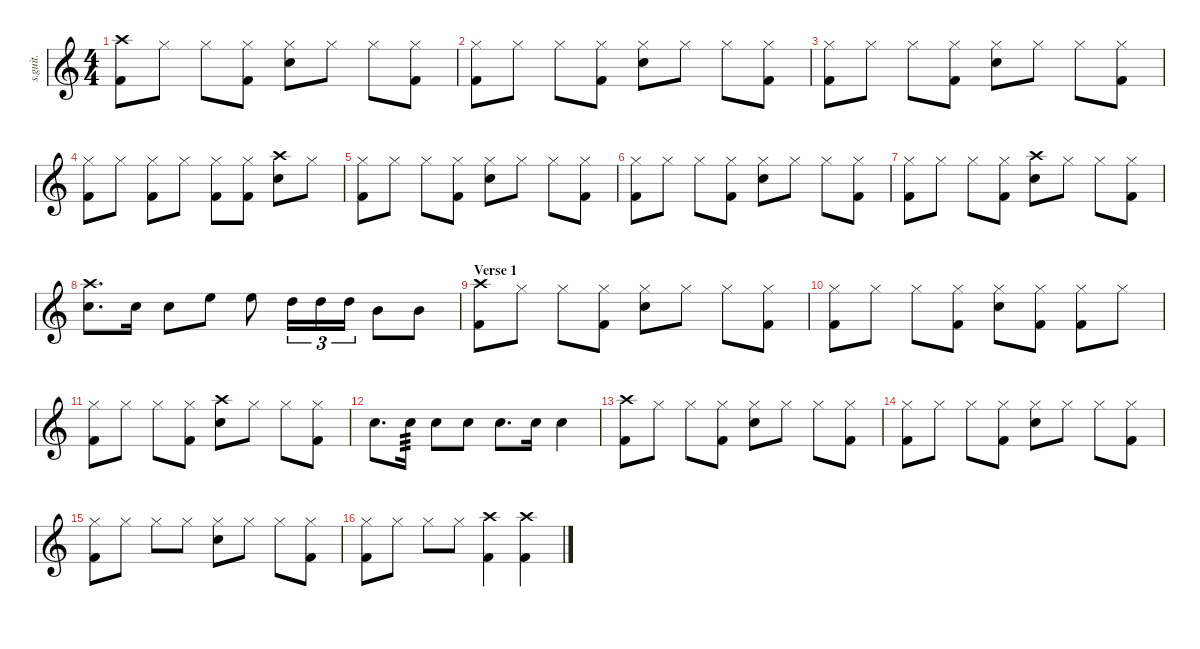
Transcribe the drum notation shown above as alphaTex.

\defaultSystemsLayout 4
\hideDynamics
\bracketExtendMode nobrackets
\track ("Lars Ulrich - Drumzzz" "s.guit.") {instrument percussion}
\staff {score}
\articulation defaults
\ts (4 4)
\tempo (113 hide)
\clef g2
\ks c
("Crash high (hit)" "Kick (hit) 2").8{lyrics (0 "") lyrics (1 "") lyrics (2 "") lyrics (3 "") lyrics (4 "") dy f} "Hi-Hat (closed)".8{lyrics (0 "") lyrics (1 "") lyrics (2 "") lyrics (3 "") lyrics (4 "")} "Hi-Hat (closed)".8{lyrics (0 "") lyrics (1 "") lyrics (2 "") lyrics (3 "") lyrics (4 "")} ("Hi-Hat (closed)" "Kick (hit) 2").8{lyrics (0 "") lyrics (1 "") lyrics (2 "") lyrics (3 "") lyrics (4 "")} ("Hi-Hat (closed)" "Snare (hit) 2").8{lyrics (0 "") lyrics (1 "") lyrics (2 "") lyrics (3 "") lyrics (4 "")} "Hi-Hat (closed)".8{lyrics (0 "") lyrics (1 "") lyrics (2 "") lyrics (3 "") lyrics (4 "")} "Hi-Hat (closed)".8{lyrics (0 "") lyrics (1 "") lyrics (2 "") lyrics (3 "") lyrics (4 "")} ("Hi-Hat (closed)" "Kick (hit) 2").8{lyrics (0 "") lyrics (1 "") lyrics (2 "") lyrics (3 "") lyrics (4 "")} |
("Hi-Hat (closed)" "Kick (hit) 2").8{lyrics (0 "") lyrics (1 "") lyrics (2 "") lyrics (3 "") lyrics (4 "")} "Hi-Hat (closed)".8{lyrics (0 "") lyrics (1 "") lyrics (2 "") lyrics (3 "") lyrics (4 "")} "Hi-Hat (closed)".8{lyrics (0 "") lyrics (1 "") lyrics (2 "") lyrics (3 "") lyrics (4 "")} ("Hi-Hat (closed)" "Kick (hit) 2").8{lyrics (0 "") lyrics (1 "") lyrics (2 "") lyrics (3 "") lyrics (4 "")} ("Hi-Hat (closed)" "Snare (hit) 2").8{lyrics (0 "") lyrics (1 "") lyrics (2 "") lyrics (3 "") lyrics (4 "")} "Hi-Hat (closed)".8{lyrics (0 "") lyrics (1 "") lyrics (2 "") lyrics (3 "") lyrics (4 "")} "Hi-Hat (closed)".8{lyrics (0 "") lyrics (1 "") lyrics (2 "") lyrics (3 "") lyrics (4 "")} ("Hi-Hat (closed)" "Kick (hit) 2").8{lyrics (0 "") lyrics (1 "") lyrics (2 "") lyrics (3 "") lyrics (4 "")} |
("Hi-Hat (closed)" "Kick (hit) 2").8{lyrics (0 "") lyrics (1 "") lyrics (2 "") lyrics (3 "") lyrics (4 "")} "Hi-Hat (closed)".8{lyrics (0 "") lyrics (1 "") lyrics (2 "") lyrics (3 "") lyrics (4 "")} "Hi-Hat (closed)".8{lyrics (0 "") lyrics (1 "") lyrics (2 "") lyrics (3 "") lyrics (4 "")} ("Hi-Hat (closed)" "Kick (hit) 2").8{lyrics (0 "") lyrics (1 "") lyrics (2 "") lyrics (3 "") lyrics (4 "")} ("Hi-Hat (closed)" "Snare (hit) 2").8{lyrics (0 "") lyrics (1 "") lyrics (2 "") lyrics (3 "") lyrics (4 "")} "Hi-Hat (closed)".8{lyrics (0 "") lyrics (1 "") lyrics (2 "") lyrics (3 "") lyrics (4 "")} "Hi-Hat (closed)".8{lyrics (0 "") lyrics (1 "") lyrics (2 "") lyrics (3 "") lyrics (4 "")} ("Hi-Hat (closed)" "Kick (hit) 2").8{lyrics (0 "") lyrics (1 "") lyrics (2 "") lyrics (3 "") lyrics (4 "")} |
("Hi-Hat (closed)" "Kick (hit) 2").8{lyrics (0 "") lyrics (1 "") lyrics (2 "") lyrics (3 "") lyrics (4 "")} "Hi-Hat (closed)".8{lyrics (0 "") lyrics (1 "") lyrics (2 "") lyrics (3 "") lyrics (4 "")} ("Hi-Hat (closed)" "Kick (hit) 2").8{lyrics (0 "") lyrics (1 "") lyrics (2 "") lyrics (3 "") lyrics (4 "")} "Hi-Hat (closed)".8{lyrics (0 "") lyrics (1 "") lyrics (2 "") lyrics (3 "") lyrics (4 "")} ("Hi-Hat (closed)" "Kick (hit) 2").8{lyrics (0 "") lyrics (1 "") lyrics (2 "") lyrics (3 "") lyrics (4 "")} ("Hi-Hat (closed)" "Kick (hit) 2").8{lyrics (0 "") lyrics (1 "") lyrics (2 "") lyrics (3 "") lyrics (4 "")} ("Crash high (hit)" "Snare (hit) 2").8{lyrics (0 "") lyrics (1 "") lyrics (2 "") lyrics (3 "") lyrics (4 "")} "Hi-Hat (closed)".8{lyrics (0 "") lyrics (1 "") lyrics (2 "") lyrics (3 "") lyrics (4 "")} |
("Hi-Hat (closed)" "Kick (hit) 2").8{lyrics (0 "") lyrics (1 "") lyrics (2 "") lyrics (3 "") lyrics (4 "")} "Hi-Hat (closed)".8{lyrics (0 "") lyrics (1 "") lyrics (2 "") lyrics (3 "") lyrics (4 "")} "Hi-Hat (closed)".8{lyrics (0 "") lyrics (1 "") lyrics (2 "") lyrics (3 "") lyrics (4 "")} ("Hi-Hat (closed)" "Kick (hit) 2").8{lyrics (0 "") lyrics (1 "") lyrics (2 "") lyrics (3 "") lyrics (4 "")} ("Hi-Hat (closed)" "Snare (hit) 2").8{lyrics (0 "") lyrics (1 "") lyrics (2 "") lyrics (3 "") lyrics (4 "")} "Hi-Hat (closed)".8{lyrics (0 "") lyrics (1 "") lyrics (2 "") lyrics (3 "") lyrics (4 "")} "Hi-Hat (closed)".8{lyrics (0 "") lyrics (1 "") lyrics (2 "") lyrics (3 "") lyrics (4 "")} ("Hi-Hat (closed)" "Kick (hit) 2").8{lyrics (0 "") lyrics (1 "") lyrics (2 "") lyrics (3 "") lyrics (4 "")} |
("Hi-Hat (closed)" "Kick (hit) 2").8{lyrics (0 "") lyrics (1 "") lyrics (2 "") lyrics (3 "") lyrics (4 "")} "Hi-Hat (closed)".8{lyrics (0 "") lyrics (1 "") lyrics (2 "") lyrics (3 "") lyrics (4 "")} "Hi-Hat (closed)".8{lyrics (0 "") lyrics (1 "") lyrics (2 "") lyrics (3 "") lyrics (4 "")} ("Hi-Hat (closed)" "Kick (hit) 2").8{lyrics (0 "") lyrics (1 "") lyrics (2 "") lyrics (3 "") lyrics (4 "")} ("Hi-Hat (closed)" "Snare (hit) 2").8{lyrics (0 "") lyrics (1 "") lyrics (2 "") lyrics (3 "") lyrics (4 "")} "Hi-Hat (closed)".8{lyrics (0 "") lyrics (1 "") lyrics (2 "") lyrics (3 "") lyrics (4 "")} "Hi-Hat (closed)".8{lyrics (0 "") lyrics (1 "") lyrics (2 "") lyrics (3 "") lyrics (4 "")} ("Hi-Hat (closed)" "Kick (hit) 2").8{lyrics (0 "") lyrics (1 "") lyrics (2 "") lyrics (3 "") lyrics (4 "")} |
("Hi-Hat (closed)" "Kick (hit) 2").8{lyrics (0 "") lyrics (1 "") lyrics (2 "") lyrics (3 "") lyrics (4 "")} "Hi-Hat (closed)".8{lyrics (0 "") lyrics (1 "") lyrics (2 "") lyrics (3 "") lyrics (4 "")} "Hi-Hat (closed)".8{lyrics (0 "") lyrics (1 "") lyrics (2 "") lyrics (3 "") lyrics (4 "")} ("Hi-Hat (closed)" "Kick (hit) 2").8{lyrics (0 "") lyrics (1 "") lyrics (2 "") lyrics (3 "") lyrics (4 "")} ("Crash high (hit)" "Snare (hit) 2").8{lyrics (0 "") lyrics (1 "") lyrics (2 "") lyrics (3 "") lyrics (4 "")} "Hi-Hat (closed)".8{lyrics (0 "") lyrics (1 "") lyrics (2 "") lyrics (3 "") lyrics (4 "")} "Hi-Hat (closed)".8{lyrics (0 "") lyrics (1 "") lyrics (2 "") lyrics (3 "") lyrics (4 "")} ("Hi-Hat (closed)" "Kick (hit) 2").8{lyrics (0 "") lyrics (1 "") lyrics (2 "") lyrics (3 "") lyrics (4 "")} |
("Crash high (hit)" "Snare (hit) 2").8{d lyrics (0 "") lyrics (1 "") lyrics (2 "") lyrics (3 "") lyrics (4 "")} "Snare (hit) 2".16{lyrics (0 "") lyrics (1 "") lyrics (2 "") lyrics (3 "") lyrics (4 "")} "Snare (hit) 2".8{lyrics (0 "") lyrics (1 "") lyrics (2 "") lyrics (3 "") lyrics (4 "")} "High Floor Tom (hit)".8{lyrics (0 "") lyrics (1 "") lyrics (2 "") lyrics (3 "") lyrics (4 "")} "High Floor Tom (hit)".8{lyrics (0 "") lyrics (1 "") lyrics (2 "") lyrics (3 "") lyrics (4 "")} "High Tom (hit)".16{tu (3 2) lyrics (0 "") lyrics (1 "") lyrics (2 "") lyrics (3 "") lyrics (4 "")} "High Tom (hit)".16{tu (3 2) lyrics (0 "") lyrics (1 "") lyrics (2 "") lyrics (3 "") lyrics (4 "")} "High Tom (hit)".16{tu (3 2) lyrics (0 "") lyrics (1 "") lyrics (2 "") lyrics (3 "") lyrics (4 "")} "Mid Tom (hit)".8{lyrics (0 "") lyrics (1 "") lyrics (2 "") lyrics (3 "") lyrics (4 "")} "Mid Tom (hit)".8{lyrics (0 "") lyrics (1 "") lyrics (2 "") lyrics (3 "") lyrics (4 "")} |
\section ("" "Verse 1")
("Crash high (hit)" "Kick (hit) 2").8{lyrics (0 "") lyrics (1 "") lyrics (2 "") lyrics (3 "") lyrics (4 "")} "Hi-Hat (closed)".8{lyrics (0 "") lyrics (1 "") lyrics (2 "") lyrics (3 "") lyrics (4 "")} "Hi-Hat (closed)".8{lyrics (0 "") lyrics (1 "") lyrics (2 "") lyrics (3 "") lyrics (4 "")} ("Hi-Hat (closed)" "Kick (hit) 2").8{lyrics (0 "") lyrics (1 "") lyrics (2 "") lyrics (3 "") lyrics (4 "")} ("Hi-Hat (closed)" "Snare (hit) 2").8{lyrics (0 "") lyrics (1 "") lyrics (2 "") lyrics (3 "") lyrics (4 "")} "Hi-Hat (closed)".8{lyrics (0 "") lyrics (1 "") lyrics (2 "") lyrics (3 "") lyrics (4 "")} "Hi-Hat (closed)".8{lyrics (0 "") lyrics (1 "") lyrics (2 "") lyrics (3 "") lyrics (4 "")} ("Hi-Hat (closed)" "Kick (hit) 2").8{lyrics (0 "") lyrics (1 "") lyrics (2 "") lyrics (3 "") lyrics (4 "")} |
("Hi-Hat (closed)" "Kick (hit) 2").8{lyrics (0 "") lyrics (1 "") lyrics (2 "") lyrics (3 "") lyrics (4 "")} "Hi-Hat (closed)".8{lyrics (0 "") lyrics (1 "") lyrics (2 "") lyrics (3 "") lyrics (4 "")} "Hi-Hat (closed)".8{lyrics (0 "") lyrics (1 "") lyrics (2 "") lyrics (3 "") lyrics (4 "")} ("Hi-Hat (closed)" "Kick (hit) 2").8{lyrics (0 "") lyrics (1 "") lyrics (2 "") lyrics (3 "") lyrics (4 "")} ("Hi-Hat (closed)" "Snare (hit) 2").8{lyrics (0 "") lyrics (1 "") lyrics (2 "") lyrics (3 "") lyrics (4 "")} ("Hi-Hat (closed)" "Kick (hit) 2").8{lyrics (0 "") lyrics (1 "") lyrics (2 "") lyrics (3 "") lyrics (4 "")} ("Hi-Hat (closed)" "Kick (hit) 2").8{lyrics (0 "") lyrics (1 "") lyrics (2 "") lyrics (3 "") lyrics (4 "")} "Hi-Hat (closed)".8{lyrics (0 "") lyrics (1 "") lyrics (2 "") lyrics (3 "") lyrics (4 "")} |
("Hi-Hat (closed)" "Kick (hit) 2").8{lyrics (0 "") lyrics (1 "") lyrics (2 "") lyrics (3 "") lyrics (4 "")} "Hi-Hat (closed)".8{lyrics (0 "") lyrics (1 "") lyrics (2 "") lyrics (3 "") lyrics (4 "")} "Hi-Hat (closed)".8{lyrics (0 "") lyrics (1 "") lyrics (2 "") lyrics (3 "") lyrics (4 "")} ("Hi-Hat (closed)" "Kick (hit) 2").8{lyrics (0 "") lyrics (1 "") lyrics (2 "") lyrics (3 "") lyrics (4 "")} ("Crash high (hit)" "Snare (hit) 2").8{lyrics (0 "") lyrics (1 "") lyrics (2 "") lyrics (3 "") lyrics (4 "")} "Hi-Hat (closed)".8{lyrics (0 "") lyrics (1 "") lyrics (2 "") lyrics (3 "") lyrics (4 "")} "Hi-Hat (closed)".8{lyrics (0 "") lyrics (1 "") lyrics (2 "") lyrics (3 "") lyrics (4 "")} ("Hi-Hat (closed)" "Kick (hit) 2").8{lyrics (0 "") lyrics (1 "") lyrics (2 "") lyrics (3 "") lyrics (4 "")} |
"Snare (hit) 2".8{d lyrics (0 "") lyrics (1 "") lyrics (2 "") lyrics (3 "") lyrics (4 "")} "Snare (hit) 2".16{lyrics (0 "") lyrics (1 "") lyrics (2 "") lyrics (3 "") lyrics (4 "") tp 3} "Snare (hit) 2".8{lyrics (0 "") lyrics (1 "") lyrics (2 "") lyrics (3 "") lyrics (4 "")} "Snare (hit) 2".8{lyrics (0 "") lyrics (1 "") lyrics (2 "") lyrics (3 "") lyrics (4 "")} "Snare (hit) 2".8{d lyrics (0 "") lyrics (1 "") lyrics (2 "") lyrics (3 "") lyrics (4 "")} "Snare (hit) 2".16{lyrics (0 "") lyrics (1 "") lyrics (2 "") lyrics (3 "") lyrics (4 "")} "Snare (hit) 2".4{lyrics (0 "") lyrics (1 "") lyrics (2 "") lyrics (3 "") lyrics (4 "")} |
("Crash high (hit)" "Kick (hit) 2").8{lyrics (0 "") lyrics (1 "") lyrics (2 "") lyrics (3 "") lyrics (4 "")} "Hi-Hat (closed)".8{lyrics (0 "") lyrics (1 "") lyrics (2 "") lyrics (3 "") lyrics (4 "")} "Hi-Hat (closed)".8{lyrics (0 "") lyrics (1 "") lyrics (2 "") lyrics (3 "") lyrics (4 "")} ("Hi-Hat (closed)" "Kick (hit) 2").8{lyrics (0 "") lyrics (1 "") lyrics (2 "") lyrics (3 "") lyrics (4 "")} ("Hi-Hat (closed)" "Snare (hit) 2").8{lyrics (0 "") lyrics (1 "") lyrics (2 "") lyrics (3 "") lyrics (4 "")} "Hi-Hat (closed)".8{lyrics (0 "") lyrics (1 "") lyrics (2 "") lyrics (3 "") lyrics (4 "")} "Hi-Hat (closed)".8{lyrics (0 "") lyrics (1 "") lyrics (2 "") lyrics (3 "") lyrics (4 "")} ("Hi-Hat (closed)" "Kick (hit) 2").8{lyrics (0 "") lyrics (1 "") lyrics (2 "") lyrics (3 "") lyrics (4 "")} |
("Hi-Hat (closed)" "Kick (hit) 2").8{lyrics (0 "") lyrics (1 "") lyrics (2 "") lyrics (3 "") lyrics (4 "")} "Hi-Hat (closed)".8{lyrics (0 "") lyrics (1 "") lyrics (2 "") lyrics (3 "") lyrics (4 "")} "Hi-Hat (closed)".8{lyrics (0 "") lyrics (1 "") lyrics (2 "") lyrics (3 "") lyrics (4 "")} ("Hi-Hat (closed)" "Kick (hit) 2").8{lyrics (0 "") lyrics (1 "") lyrics (2 "") lyrics (3 "") lyrics (4 "")} ("Hi-Hat (closed)" "Snare (hit) 2").8{lyrics (0 "") lyrics (1 "") lyrics (2 "") lyrics (3 "") lyrics (4 "")} "Hi-Hat (closed)".8{lyrics (0 "") lyrics (1 "") lyrics (2 "") lyrics (3 "") lyrics (4 "")} "Hi-Hat (closed)".8{lyrics (0 "") lyrics (1 "") lyrics (2 "") lyrics (3 "") lyrics (4 "")} ("Hi-Hat (closed)" "Kick (hit) 2").8{lyrics (0 "") lyrics (1 "") lyrics (2 "") lyrics (3 "") lyrics (4 "")} |
("Hi-Hat (closed)" "Kick (hit) 2").8{lyrics (0 "") lyrics (1 "") lyrics (2 "") lyrics (3 "") lyrics (4 "")} "Hi-Hat (closed)".8{lyrics (0 "") lyrics (1 "") lyrics (2 "") lyrics (3 "") lyrics (4 "")} "Hi-Hat (closed)".8{lyrics (0 "") lyrics (1 "") lyrics (2 "") lyrics (3 "") lyrics (4 "")} "Hi-Hat (closed)".8{lyrics (0 "") lyrics (1 "") lyrics (2 "") lyrics (3 "") lyrics (4 "")} ("Hi-Hat (closed)" "Snare (hit) 2").8{lyrics (0 "") lyrics (1 "") lyrics (2 "") lyrics (3 "") lyrics (4 "")} "Hi-Hat (closed)".8{lyrics (0 "") lyrics (1 "") lyrics (2 "") lyrics (3 "") lyrics (4 "")} "Hi-Hat (closed)".8{lyrics (0 "") lyrics (1 "") lyrics (2 "") lyrics (3 "") lyrics (4 "")} ("Hi-Hat (closed)" "Kick (hit) 2").8{lyrics (0 "") lyrics (1 "") lyrics (2 "") lyrics (3 "") lyrics (4 "")} |
("Hi-Hat (closed)" "Kick (hit) 2").8{lyrics (0 "") lyrics (1 "") lyrics (2 "") lyrics (3 "") lyrics (4 "")} "Hi-Hat (closed)".8{lyrics (0 "") lyrics (1 "") lyrics (2 "") lyrics (3 "") lyrics (4 "")} "Hi-Hat (closed)".8{lyrics (0 "") lyrics (1 "") lyrics (2 "") lyrics (3 "") lyrics (4 "")} "Hi-Hat (closed)".8{lyrics (0 "") lyrics (1 "") lyrics (2 "") lyrics (3 "") lyrics (4 "")} ("Crash high (hit)" "Kick (hit) 2").4{lyrics (0 "") lyrics (1 "") lyrics (2 "") lyrics (3 "") lyrics (4 "")} ("Crash high (hit)" "Kick (hit) 2").4{lyrics (0 "") lyrics (1 "") lyrics (2 "") lyrics (3 "") lyrics (4 "")}
